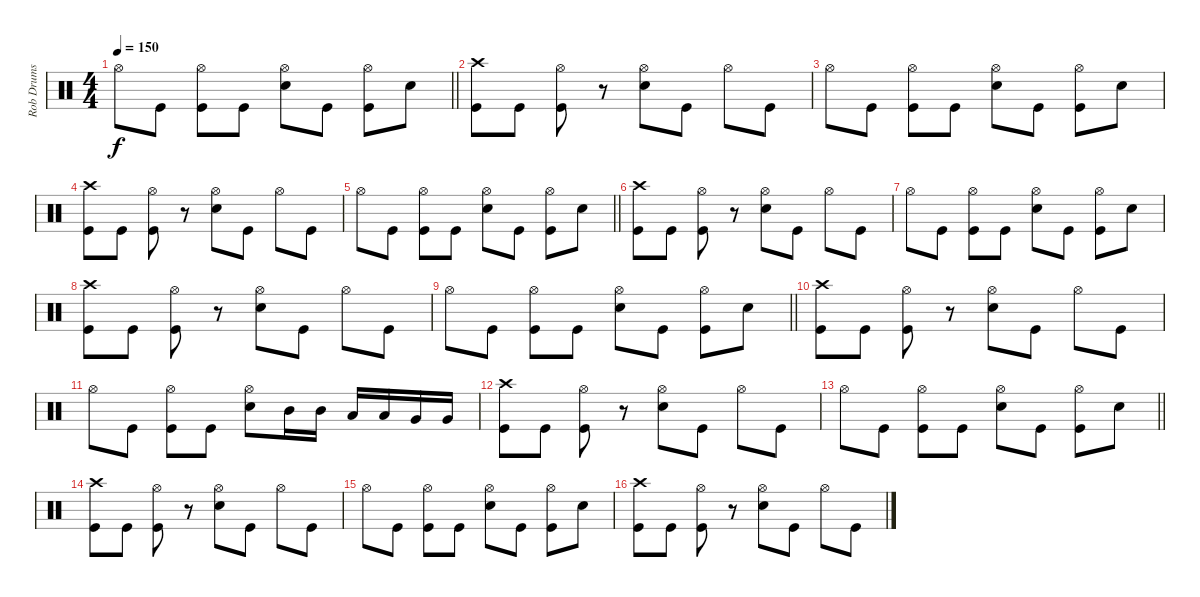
\track ("Rob Drums" "Rob Drums") {instrument percussion}
\staff {score}
\articulation defaults
\ts (4 4)
\tempo 150
\clef neutral
\barLineRight lightlight
\ks c "Hi-Hat (open)".8{dy f} "Kick (hit)".8
("Hi-Hat (open)" "Kick (hit)").8 "Kick (hit)".8 ("Hi-Hat (open)" "Snare (hit) 2").8 "Kick (hit)".8 ("Hi-Hat (open)" "Kick (hit)").8 "Snare (hit) 2".8 |
("Crash high (hit)" "Kick (hit)").8 "Kick (hit)".8 ("Hi-Hat (open)" "Kick (hit)").8 r.8 ("Hi-Hat (open)" "Snare (hit) 2").8 "Kick (hit)".8 "Hi-Hat (open)".8 "Kick (hit)".8 |
"Hi-Hat (open)".8 "Kick (hit)".8 ("Hi-Hat (open)" "Kick (hit)").8 "Kick (hit)".8 ("Hi-Hat (open)" "Snare (hit) 2").8 "Kick (hit)".8 ("Hi-Hat (open)" "Kick (hit)").8 "Snare (hit) 2".8 |
("Crash high (hit)" "Kick (hit)").8 "Kick (hit)".8 ("Hi-Hat (open)" "Kick (hit)").8 r.8 ("Hi-Hat (open)" "Snare (hit) 2").8 "Kick (hit)".8 "Hi-Hat (open)".8 "Kick (hit)".8 |
\barLineRight lightlight "Hi-Hat (open)".8 "Kick (hit)".8
("Hi-Hat (open)" "Kick (hit)").8 "Kick (hit)".8 ("Hi-Hat (open)" "Snare (hit) 2").8 "Kick (hit)".8 ("Hi-Hat (open)" "Kick (hit)").8 "Snare (hit) 2".8 |
("Crash high (hit)" "Kick (hit)").8 "Kick (hit)".8 ("Hi-Hat (open)" "Kick (hit)").8 r.8 ("Hi-Hat (open)" "Snare (hit) 2").8 "Kick (hit)".8 "Hi-Hat (open)".8 "Kick (hit)".8 |
"Hi-Hat (open)".8 "Kick (hit)".8 ("Hi-Hat (open)" "Kick (hit)").8 "Kick (hit)".8 ("Hi-Hat (open)" "Snare (hit) 2").8 "Kick (hit)".8 ("Hi-Hat (open)" "Kick (hit)").8 "Snare (hit) 2".8 |
("Crash high (hit)" "Kick (hit)").8 "Kick (hit)".8 ("Hi-Hat (open)" "Kick (hit)").8 r.8 ("Hi-Hat (open)" "Snare (hit) 2").8 "Kick (hit)".8 "Hi-Hat (open)".8 "Kick (hit)".8 |
\barLineRight lightlight "Hi-Hat (open)".8 "Kick (hit)".8
("Hi-Hat (open)" "Kick (hit)").8 "Kick (hit)".8 ("Hi-Hat (open)" "Snare (hit) 2").8 "Kick (hit)".8 ("Hi-Hat (open)" "Kick (hit)").8 "Snare (hit) 2".8 |
("Crash high (hit)" "Kick (hit)").8 "Kick (hit)".8 ("Hi-Hat (open)" "Kick (hit)").8 r.8 ("Hi-Hat (open)" "Snare (hit) 2").8 "Kick (hit)".8 "Hi-Hat (open)".8 "Kick (hit)".8 |
"Hi-Hat (open)".8 "Kick (hit)".8 ("Hi-Hat (open)" "Kick (hit)").8 "Kick (hit)".8 ("Hi-Hat (open)" "Snare (hit) 2").8 "Mid Tom (hit)".16 "Mid Tom (hit)".16 "Low Tom (hit)".16 "Low Tom (hit)".16 "Very Low Tom (hit)".16 "Very Low Tom (hit)".16 |
("Crash high (hit)" "Kick (hit)").8 "Kick (hit)".8 ("Hi-Hat (open)" "Kick (hit)").8 r.8 ("Hi-Hat (open)" "Snare (hit) 2").8 "Kick (hit)".8 "Hi-Hat (open)".8 "Kick (hit)".8 |
\barLineRight lightlight "Hi-Hat (open)".8 "Kick (hit)".8
("Hi-Hat (open)" "Kick (hit)").8 "Kick (hit)".8 ("Hi-Hat (open)" "Snare (hit) 2").8 "Kick (hit)".8 ("Hi-Hat (open)" "Kick (hit)").8 "Snare (hit) 2".8 |
("Crash high (hit)" "Kick (hit)").8 "Kick (hit)".8 ("Hi-Hat (open)" "Kick (hit)").8 r.8 ("Hi-Hat (open)" "Snare (hit) 2").8 "Kick (hit)".8 "Hi-Hat (open)".8 "Kick (hit)".8 |
"Hi-Hat (open)".8 "Kick (hit)".8 ("Hi-Hat (open)" "Kick (hit)").8 "Kick (hit)".8 ("Hi-Hat (open)" "Snare (hit) 2").8 "Kick (hit)".8 ("Hi-Hat (open)" "Kick (hit)").8 "Snare (hit) 2".8 |
("Crash high (hit)" "Kick (hit)").8 "Kick (hit)".8 ("Hi-Hat (open)" "Kick (hit)").8 r.8 ("Hi-Hat (open)" "Snare (hit) 2").8 "Kick (hit)".8 "Hi-Hat (open)".8 "Kick (hit)".8
